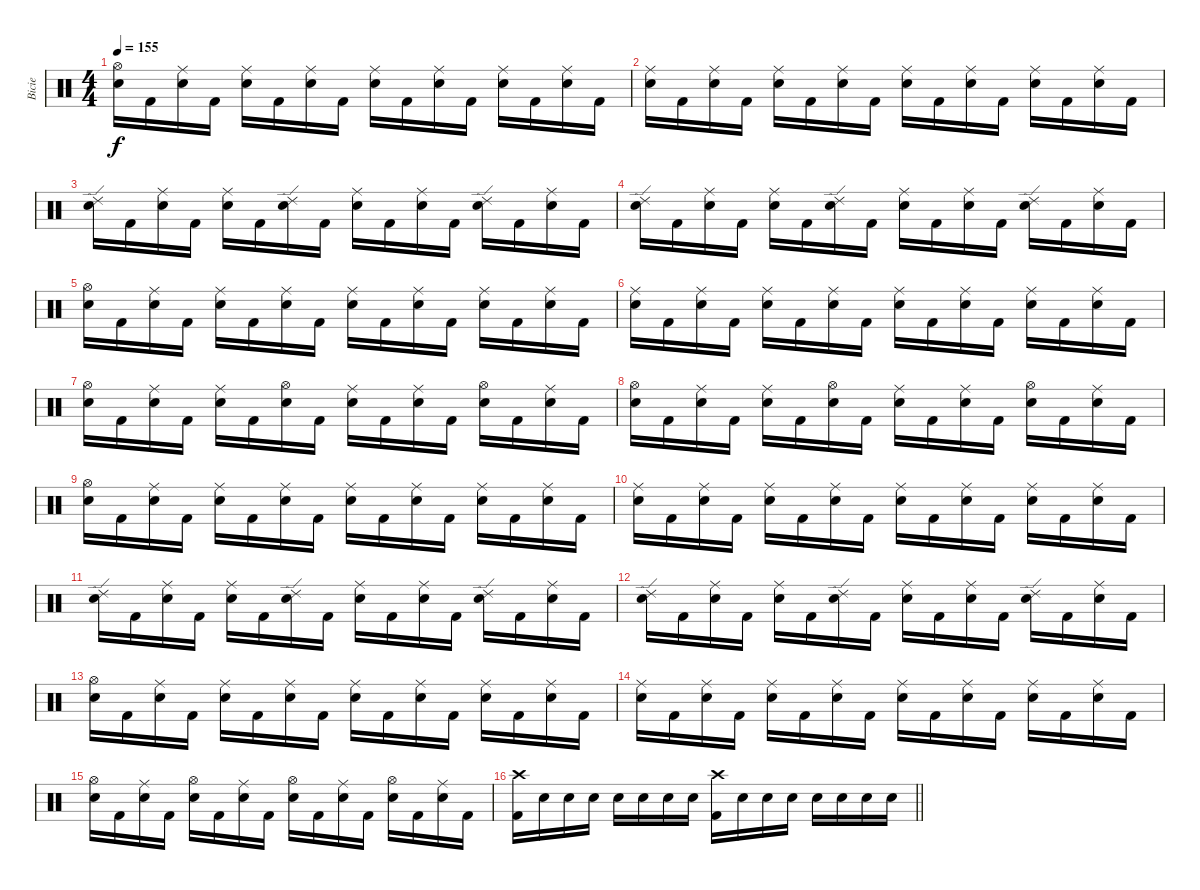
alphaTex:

\track ("Bicie" "Bicie") {instrument percussion}
\staff {score}
\articulation defaults
\ts (4 4)
\tempo 155
\clef neutral
\ks c
("Hi-Hat (open)" "Snare (hit) 2").16{dy f} "Kick (hit) 2".16 ("Ride (middle)" "Snare (hit) 2").16 "Kick (hit) 2".16 ("Ride (middle)" "Snare (hit) 2").16 "Kick (hit) 2".16 ("Ride (middle)" "Snare (hit) 2").16 "Kick (hit) 2".16 ("Ride (middle)" "Snare (hit) 2").16 "Kick (hit) 2".16 ("Ride (middle)" "Snare (hit) 2").16 "Kick (hit) 2".16 ("Ride (middle)" "Snare (hit) 2").16 "Kick (hit) 2".16 ("Ride (middle)" "Snare (hit) 2").16 "Kick (hit) 2".16 |
("Ride (middle)" "Snare (hit) 2").16 "Kick (hit) 2".16 ("Ride (middle)" "Snare (hit) 2").16 "Kick (hit) 2".16 ("Ride (middle)" "Snare (hit) 2").16 "Kick (hit) 2".16 ("Ride (middle)" "Snare (hit) 2").16 "Kick (hit) 2".16 ("Ride (middle)" "Snare (hit) 2").16 "Kick (hit) 2".16 ("Ride (middle)" "Snare (hit) 2").16 "Kick (hit) 2".16 ("Ride (middle)" "Snare (hit) 2").16 "Kick (hit) 2".16 ("Ride (middle)" "Snare (hit) 2").16 "Kick (hit) 2".16 |
("Ride (edge) 2" "Snare (hit) 2").16 "Kick (hit) 2".16 ("Ride (middle)" "Snare (hit) 2").16 "Kick (hit) 2".16 ("Ride (middle)" "Snare (hit) 2").16 "Kick (hit) 2".16 ("Ride (edge) 2" "Snare (hit) 2").16 "Kick (hit) 2".16 ("Ride (middle)" "Snare (hit) 2").16 "Kick (hit) 2".16 ("Ride (middle)" "Snare (hit) 2").16 "Kick (hit) 2".16 ("Ride (edge) 2" "Snare (hit) 2").16 "Kick (hit) 2".16 ("Ride (middle)" "Snare (hit) 2").16 "Kick (hit) 2".16 |
("Ride (edge) 2" "Snare (hit) 2").16 "Kick (hit) 2".16 ("Ride (middle)" "Snare (hit) 2").16 "Kick (hit) 2".16 ("Ride (middle)" "Snare (hit) 2").16 "Kick (hit) 2".16 ("Ride (edge) 2" "Snare (hit) 2").16 "Kick (hit) 2".16 ("Ride (middle)" "Snare (hit) 2").16 "Kick (hit) 2".16 ("Ride (middle)" "Snare (hit) 2").16 "Kick (hit) 2".16 ("Ride (edge) 2" "Snare (hit) 2").16 "Kick (hit) 2".16 ("Ride (middle)" "Snare (hit) 2").16 "Kick (hit) 2".16 |
("Hi-Hat (open)" "Snare (hit) 2").16 "Kick (hit) 2".16 ("Ride (middle)" "Snare (hit) 2").16 "Kick (hit) 2".16 ("Ride (middle)" "Snare (hit) 2").16 "Kick (hit) 2".16 ("Ride (middle)" "Snare (hit) 2").16 "Kick (hit) 2".16 ("Ride (middle)" "Snare (hit) 2").16 "Kick (hit) 2".16 ("Ride (middle)" "Snare (hit) 2").16 "Kick (hit) 2".16 ("Ride (middle)" "Snare (hit) 2").16 "Kick (hit) 2".16 ("Ride (middle)" "Snare (hit) 2").16 "Kick (hit) 2".16 |
("Ride (middle)" "Snare (hit) 2").16 "Kick (hit) 2".16 ("Ride (middle)" "Snare (hit) 2").16 "Kick (hit) 2".16 ("Ride (middle)" "Snare (hit) 2").16 "Kick (hit) 2".16 ("Ride (middle)" "Snare (hit) 2").16 "Kick (hit) 2".16 ("Ride (middle)" "Snare (hit) 2").16 "Kick (hit) 2".16 ("Ride (middle)" "Snare (hit) 2").16 "Kick (hit) 2".16 ("Ride (middle)" "Snare (hit) 2").16 "Kick (hit) 2".16 ("Ride (middle)" "Snare (hit) 2").16 "Kick (hit) 2".16 |
("Hi-Hat (open)" "Snare (hit) 2").16 "Kick (hit) 2".16 ("Ride (middle)" "Snare (hit) 2").16 "Kick (hit) 2".16 ("Ride (middle)" "Snare (hit) 2").16 "Kick (hit) 2".16 ("Hi-Hat (open)" "Snare (hit) 2").16 "Kick (hit) 2".16 ("Ride (middle)" "Snare (hit) 2").16 "Kick (hit) 2".16 ("Ride (middle)" "Snare (hit) 2").16 "Kick (hit) 2".16 ("Hi-Hat (open)" "Snare (hit) 2").16 "Kick (hit) 2".16 ("Ride (middle)" "Snare (hit) 2").16 "Kick (hit) 2".16 |
("Hi-Hat (open)" "Snare (hit) 2").16 "Kick (hit) 2".16 ("Ride (middle)" "Snare (hit) 2").16 "Kick (hit) 2".16 ("Ride (middle)" "Snare (hit) 2").16 "Kick (hit) 2".16 ("Hi-Hat (open)" "Snare (hit) 2").16 "Kick (hit) 2".16 ("Ride (middle)" "Snare (hit) 2").16 "Kick (hit) 2".16 ("Ride (middle)" "Snare (hit) 2").16 "Kick (hit) 2".16 ("Hi-Hat (open)" "Snare (hit) 2").16 "Kick (hit) 2".16 ("Ride (middle)" "Snare (hit) 2").16 "Kick (hit) 2".16 |
("Hi-Hat (open)" "Snare (hit) 2").16 "Kick (hit) 2".16 ("Ride (middle)" "Snare (hit) 2").16 "Kick (hit) 2".16 ("Ride (middle)" "Snare (hit) 2").16 "Kick (hit) 2".16 ("Ride (middle)" "Snare (hit) 2").16 "Kick (hit) 2".16 ("Ride (middle)" "Snare (hit) 2").16 "Kick (hit) 2".16 ("Ride (middle)" "Snare (hit) 2").16 "Kick (hit) 2".16 ("Ride (middle)" "Snare (hit) 2").16 "Kick (hit) 2".16 ("Ride (middle)" "Snare (hit) 2").16 "Kick (hit) 2".16 |
("Ride (middle)" "Snare (hit) 2").16 "Kick (hit) 2".16 ("Ride (middle)" "Snare (hit) 2").16 "Kick (hit) 2".16 ("Ride (middle)" "Snare (hit) 2").16 "Kick (hit) 2".16 ("Ride (middle)" "Snare (hit) 2").16 "Kick (hit) 2".16 ("Ride (middle)" "Snare (hit) 2").16 "Kick (hit) 2".16 ("Ride (middle)" "Snare (hit) 2").16 "Kick (hit) 2".16 ("Ride (middle)" "Snare (hit) 2").16 "Kick (hit) 2".16 ("Ride (middle)" "Snare (hit) 2").16 "Kick (hit) 2".16 |
("Ride (edge) 2" "Snare (hit) 2").16 "Kick (hit) 2".16 ("Ride (middle)" "Snare (hit) 2").16 "Kick (hit) 2".16 ("Ride (middle)" "Snare (hit) 2").16 "Kick (hit) 2".16 ("Ride (edge) 2" "Snare (hit) 2").16 "Kick (hit) 2".16 ("Ride (middle)" "Snare (hit) 2").16 "Kick (hit) 2".16 ("Ride (middle)" "Snare (hit) 2").16 "Kick (hit) 2".16 ("Ride (edge) 2" "Snare (hit) 2").16 "Kick (hit) 2".16 ("Ride (middle)" "Snare (hit) 2").16 "Kick (hit) 2".16 |
("Ride (edge) 2" "Snare (hit) 2").16 "Kick (hit) 2".16 ("Ride (middle)" "Snare (hit) 2").16 "Kick (hit) 2".16 ("Ride (middle)" "Snare (hit) 2").16 "Kick (hit) 2".16 ("Ride (edge) 2" "Snare (hit) 2").16 "Kick (hit) 2".16 ("Ride (middle)" "Snare (hit) 2").16 "Kick (hit) 2".16 ("Ride (middle)" "Snare (hit) 2").16 "Kick (hit) 2".16 ("Ride (edge) 2" "Snare (hit) 2").16 "Kick (hit) 2".16 ("Ride (middle)" "Snare (hit) 2").16 "Kick (hit) 2".16 |
("Hi-Hat (open)" "Snare (hit) 2").16 "Kick (hit) 2".16 ("Ride (middle)" "Snare (hit) 2").16 "Kick (hit) 2".16 ("Ride (middle)" "Snare (hit) 2").16 "Kick (hit) 2".16 ("Ride (middle)" "Snare (hit) 2").16 "Kick (hit) 2".16 ("Ride (middle)" "Snare (hit) 2").16 "Kick (hit) 2".16 ("Ride (middle)" "Snare (hit) 2").16 "Kick (hit) 2".16 ("Ride (middle)" "Snare (hit) 2").16 "Kick (hit) 2".16 ("Ride (middle)" "Snare (hit) 2").16 "Kick (hit) 2".16 |
("Ride (middle)" "Snare (hit) 2").16 "Kick (hit) 2".16 ("Ride (middle)" "Snare (hit) 2").16 "Kick (hit) 2".16 ("Ride (middle)" "Snare (hit) 2").16 "Kick (hit) 2".16 ("Ride (middle)" "Snare (hit) 2").16 "Kick (hit) 2".16 ("Ride (middle)" "Snare (hit) 2").16 "Kick (hit) 2".16 ("Ride (middle)" "Snare (hit) 2").16 "Kick (hit) 2".16 ("Ride (middle)" "Snare (hit) 2").16 "Kick (hit) 2".16 ("Ride (middle)" "Snare (hit) 2").16 "Kick (hit) 2".16 |
("Hi-Hat (open)" "Snare (hit) 2").16 "Kick (hit) 2".16 ("Ride (middle)" "Snare (hit) 2").16 "Kick (hit) 2".16 ("Hi-Hat (open)" "Snare (hit) 2").16 "Kick (hit) 2".16 ("Ride (middle)" "Snare (hit) 2").16 "Kick (hit) 2".16 ("Hi-Hat (open)" "Snare (hit) 2").16 "Kick (hit) 2".16 ("Ride (middle)" "Snare (hit) 2").16 "Kick (hit) 2".16 ("Hi-Hat (open)" "Snare (hit) 2").16 "Kick (hit) 2".16 ("Ride (middle)" "Snare (hit) 2").16 "Kick (hit) 2".16 |
\barLineRight lightlight
("Crash high (hit)" "Kick (hit) 2").16 "Snare (hit) 2".16 "Snare (hit) 2".16 "Snare (hit) 2".16 "Snare (hit) 2".16 "Snare (hit) 2".16 "Snare (hit) 2".16 "Snare (hit) 2".16 ("Crash high (hit)" "Kick (hit) 2").16 "Snare (hit) 2".16 "Snare (hit) 2".16 "Snare (hit) 2".16 "Snare (hit) 2".16 "Snare (hit) 2".16 "Snare (hit) 2".16 "Snare (hit) 2".16
